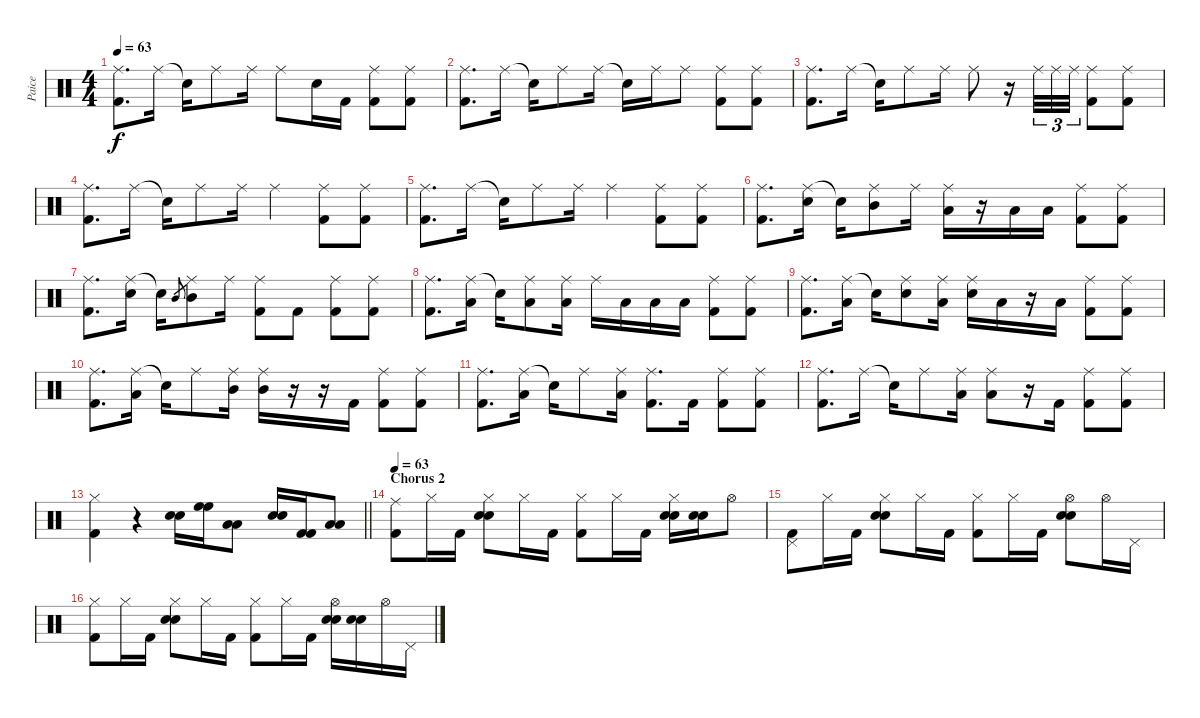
\track ("Paice" "Paice") {instrument percussion}
\staff {score}
\articulation defaults
\ts (4 4)
\tempo 63
\clef neutral
\ks c
("Ride (middle)" "Kick (hit) 2").8{d dy f} "Ride (middle)".16 "Snare (hit)"{t}.16 "Ride (middle)".8 "Ride (middle)".16 "Ride (middle)".8 "Snare (hit)"{x}.16 "Kick (hit) 2".16 ("Ride (middle)" "Kick (hit) 2").8 ("Ride (middle)" "Kick (hit) 2").8 |
("Ride (middle)" "Kick (hit) 2").8{d} "Ride (middle)".16 "Snare (hit)"{t}.16 "Ride (middle)".8 "Ride (middle)".16 "Snare (hit)"{t}.16 "Ride (middle)".16 "Ride (middle)".8 ("Ride (middle)" "Kick (hit) 2").8 ("Ride (middle)" "Kick (hit) 2").8 |
("Ride (middle)" "Kick (hit) 2").8{d} "Ride (middle)".16 "Snare (hit)"{t}.16 "Ride (middle)".8 "Ride (middle)".16 "Ride (middle)".8 r.16 "Ride (middle)".32{tu (3 2)} "Ride (middle)".32{tu (3 2)} "Ride (middle)".32{tu (3 2)} ("Ride (middle)" "Kick (hit) 2").8 ("Ride (middle)" "Kick (hit) 2").8 |
("Ride (middle)" "Kick (hit) 2").8{d} "Ride (middle)".16 "Snare (hit)"{t}.16 "Ride (middle)".8 "Ride (middle)".16 "Ride (middle)".4 ("Ride (middle)" "Kick (hit) 2").8 ("Ride (middle)" "Kick (hit) 2").8 |
("Ride (middle)" "Kick (hit) 2").8{d} "Ride (middle)".16 "Snare (hit)"{t}.16 "Ride (middle)".8 "Ride (middle)".16 "Ride (middle)".4 ("Ride (middle)" "Kick (hit) 2").8 ("Ride (middle)" "Kick (hit) 2").8 |
("Ride (middle)" "Kick (hit) 2").8{d} ("Ride (middle)" "Electric Snare (hit)").16 "Snare (hit)"{t}.16 ("Ride (middle)" "Mid Tom (hit)").8 "Ride (middle)".16 ("Ride (middle)" "Low Tom (hit)").16 r.16 "Low Tom (hit)".16 "Low Tom (hit)".16 ("Ride (middle)" "Kick (hit) 2").8 ("Ride (middle)" "Kick (hit) 2").8 |
("Ride (middle)" "Kick (hit) 2").8{d} ("Ride (middle)" "Electric Snare (hit)").16 "Snare (hit)"{t}.16 "Mid Tom (hit)".8{gr} ("Ride (middle)" "Mid Tom (hit)").8 "Ride (middle)".16 ("Ride (middle)" "Kick (hit) 2").8 "Kick (hit) 2".8 ("Ride (middle)" "Kick (hit) 2").8 ("Ride (middle)" "Kick (hit) 2").8 |
("Ride (middle)" "Kick (hit) 2").8{d} ("Ride (middle)" "Low Tom (hit)").16 "Snare (hit)"{t}.16 ("Ride (middle)" "Low Tom (hit)").8 ("Ride (middle)" "Low Tom (hit)").16 "Ride (middle)".16 "Low Tom (hit)".16 "Low Tom (hit)".16 "Low Tom (hit)".16 ("Ride (middle)" "Kick (hit) 2").8 ("Ride (middle)" "Kick (hit) 2").8 |
("Ride (middle)" "Kick (hit) 2").8{d} ("Ride (middle)" "Low Tom (hit)").16 "Snare (hit)"{t}.16 ("Ride (middle)" "Electric Snare (hit)").8 ("Ride (middle)" "Low Floor Tom (hit)").16 ("Ride (middle)" "Electric Snare (hit)").16 "Low Tom (hit)".16 r.16 "Low Tom (hit)".16 ("Ride (middle)" "Kick (hit) 2").8 ("Ride (middle)" "Kick (hit) 2").8 |
("Ride (middle)" "Kick (hit) 2").8{d} ("Ride (middle)" "Low Tom (hit)").16 "Snare (hit)"{t}.16 "Ride (middle)".8 ("Ride (middle)" "Mid Tom (hit)").16 ("Ride (middle)" "Mid Tom (hit)").16 r.16 r.16 "Kick (hit) 2".16 ("Ride (middle)" "Kick (hit) 2").8 ("Ride (middle)" "Kick (hit) 2").8 |
("Ride (middle)" "Kick (hit) 2").8{d} ("Ride (middle)" "Low Tom (hit)").16 "Snare (hit)"{t}.16 "Ride (middle)".8 ("Ride (middle)" "Low Tom (hit)").16 ("Ride (middle)" "Kick (hit) 2").8{d} "Kick (hit) 2".16 ("Ride (middle)" "Kick (hit) 2").8 ("Ride (middle)" "Kick (hit) 2").8 |
("Ride (middle)" "Kick (hit) 2").8{d} "Ride (middle)".16 "Snare (hit)"{t}.16 "Ride (middle)".8 ("Ride (middle)" "Low Tom (hit)").16 ("Ride (middle)" "Low Tom (hit)").8 r.16 "Kick (hit) 2".16 ("Ride (middle)" "Kick (hit) 2").8 ("Ride (middle)" "Kick (hit) 2").8 |
\barLineRight lightlight
("Hi-Hat (closed)" "Kick (hit) 2").4 r.4 ("Electric Snare (hit)" "Electric Snare (hit)").16 ("High Floor Tom (hit)" "High Floor Tom (hit)").16 ("Low Tom (hit)" "Low Tom (hit)").8 ("Electric Snare (hit)" "Electric Snare (hit)").16 ("Kick (hit) 2" "Kick (hit) 2").16 ("Low Tom (hit)" "Low Tom (hit)").8 |
\section ("" "Chorus 2")
\tempo 63
("Ride (middle)" "Kick (hit) 2").8 "Hi-Hat (closed)".16 "Kick (hit) 2".16 ("Hi-Hat (closed)" "Electric Snare (hit)" "Electric Snare (hit)").8 "Hi-Hat (closed)".16 "Kick (hit) 2".16 ("Hi-Hat (closed)" "Kick (hit) 2").8 "Hi-Hat (closed)".16 "Kick (hit) 2".16 ("Hi-Hat (closed)" "Electric Snare (hit)" "Electric Snare (hit)").16 ("Electric Snare (hit)" "Electric Snare (hit)").16 "Hi-Hat (open)".8 |
("Pedal Hi-Hat (hit)" "Kick (hit) 2").8 "Hi-Hat (closed)".16 "Kick (hit) 2".16 ("Hi-Hat (closed)" "Electric Snare (hit)" "Electric Snare (hit)").8 "Hi-Hat (closed)".16 "Kick (hit) 2".16 ("Hi-Hat (closed)" "Kick (hit) 2").8 "Hi-Hat (closed)".16 "Kick (hit) 2".16 ("Hi-Hat (open)" "Electric Snare (hit)" "Electric Snare (hit)").8 "Hi-Hat (open)".16 "Pedal Hi-Hat (hit)".16 |
("Hi-Hat (closed)" "Kick (hit) 2").8 "Hi-Hat (closed)".16 "Kick (hit) 2".16 ("Hi-Hat (closed)" "Electric Snare (hit)" "Electric Snare (hit)").8 "Hi-Hat (closed)".16 "Kick (hit) 2".16 ("Hi-Hat (closed)" "Kick (hit) 2").8 "Hi-Hat (closed)".16 "Kick (hit) 2".16 ("Hi-Hat (open)" "Electric Snare (hit)" "Electric Snare (hit)").16 ("Electric Snare (hit)" "Electric Snare (hit)").16 "Hi-Hat (open)".16 "Pedal Hi-Hat (hit)".16
